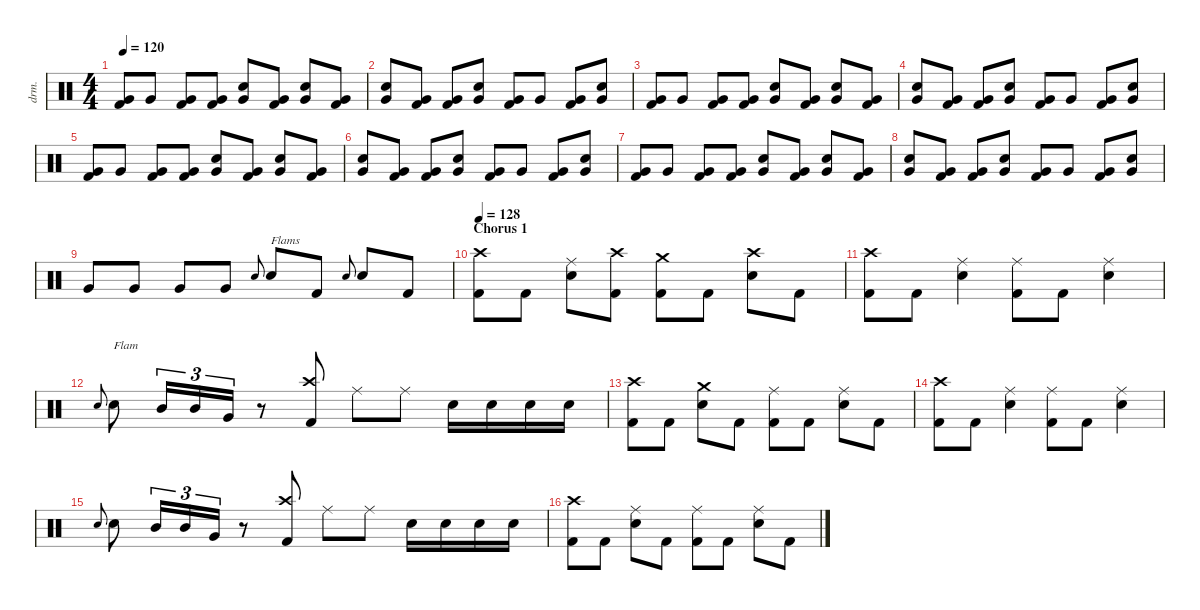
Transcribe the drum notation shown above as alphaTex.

\defaultSystemsLayout 4
\hideDynamics
\bracketExtendMode nobrackets
\otherSystemsTrackNameOrientation horizontal
\track ("Jimmy Chamberlin" "drm.") {instrument percussion}
\staff {score}
\articulation defaults
\ts (4 4)
\tempo 120
\clef neutral
\ks c
("Kick (hit) 2" "Very Low Tom (hit)").8{dy mf beam Up} "Very Low Tom (hit)".8{beam Up} ("Kick (hit) 2" "Very Low Tom (hit)").8{beam Up} ("Very Low Tom (hit)" "Kick (hit) 2").8{beam Up} ("Very Low Tom (hit)" "Snare (hit) 2").8{beam Up} ("Kick (hit) 2" "Very Low Tom (hit)").8{beam Up} ("Very Low Tom (hit)" "Snare (hit) 2").8{beam Up} ("Kick (hit) 2" "Very Low Tom (hit)").8{beam Up} |
("Snare (hit) 2" "Very Low Tom (hit)").8{beam Up} ("Kick (hit) 2" "Very Low Tom (hit)").8{beam Up} ("Kick (hit) 2" "Very Low Tom (hit)").8{beam Up} ("Snare (hit) 2" "Very Low Tom (hit)").8{beam Up} ("Kick (hit) 2" "Very Low Tom (hit)").8{beam Up} "Very Low Tom (hit)".8{beam Up} ("Very Low Tom (hit)" "Kick (hit) 2").8{beam Up} ("Snare (hit) 2" "Very Low Tom (hit)").8{beam Up} |
("Kick (hit) 2" "Very Low Tom (hit)").8{beam Up} "Very Low Tom (hit)".8{beam Up} ("Kick (hit) 2" "Very Low Tom (hit)").8{beam Up} ("Very Low Tom (hit)" "Kick (hit) 2").8{beam Up} ("Very Low Tom (hit)" "Snare (hit) 2").8{beam Up} ("Kick (hit) 2" "Very Low Tom (hit)").8{beam Up} ("Very Low Tom (hit)" "Snare (hit) 2").8{beam Up} ("Kick (hit) 2" "Very Low Tom (hit)").8{beam Up} |
("Snare (hit) 2" "Very Low Tom (hit)").8{beam Up} ("Kick (hit) 2" "Very Low Tom (hit)").8{beam Up} ("Kick (hit) 2" "Very Low Tom (hit)").8{beam Up} ("Snare (hit) 2" "Very Low Tom (hit)").8{beam Up} ("Kick (hit) 2" "Very Low Tom (hit)").8{beam Up} "Very Low Tom (hit)".8{beam Up} ("Very Low Tom (hit)" "Kick (hit) 2").8{beam Up} ("Snare (hit) 2" "Very Low Tom (hit)").8{beam Up} |
("Kick (hit) 2" "Very Low Tom (hit)").8{beam Up} "Very Low Tom (hit)".8{beam Up} ("Kick (hit) 2" "Very Low Tom (hit)").8{beam Up} ("Very Low Tom (hit)" "Kick (hit) 2").8{beam Up} ("Very Low Tom (hit)" "Snare (hit) 2").8{beam Up} ("Kick (hit) 2" "Very Low Tom (hit)").8{beam Up} ("Very Low Tom (hit)" "Snare (hit) 2").8{beam Up} ("Kick (hit) 2" "Very Low Tom (hit)").8{beam Up} |
("Snare (hit) 2" "Very Low Tom (hit)").8{beam Up} ("Kick (hit) 2" "Very Low Tom (hit)").8{beam Up} ("Kick (hit) 2" "Very Low Tom (hit)").8{beam Up} ("Snare (hit) 2" "Very Low Tom (hit)").8{beam Up} ("Kick (hit) 2" "Very Low Tom (hit)").8{beam Up} "Very Low Tom (hit)".8{beam Up} ("Very Low Tom (hit)" "Kick (hit) 2").8{beam Up} ("Snare (hit) 2" "Very Low Tom (hit)").8{beam Up} |
("Kick (hit) 2" "Very Low Tom (hit)").8{beam Up} "Very Low Tom (hit)".8{beam Up} ("Kick (hit) 2" "Very Low Tom (hit)").8{beam Up} ("Very Low Tom (hit)" "Kick (hit) 2").8{beam Up} ("Very Low Tom (hit)" "Snare (hit) 2").8{beam Up} ("Kick (hit) 2" "Very Low Tom (hit)").8{beam Up} ("Very Low Tom (hit)" "Snare (hit) 2").8{beam Up} ("Kick (hit) 2" "Very Low Tom (hit)").8{beam Up} |
("Snare (hit) 2" "Very Low Tom (hit)").8{beam Up} ("Kick (hit) 2" "Very Low Tom (hit)").8{beam Up} ("Kick (hit) 2" "Very Low Tom (hit)").8{beam Up} ("Snare (hit) 2" "Very Low Tom (hit)").8{beam Up} ("Kick (hit) 2" "Very Low Tom (hit)").8{beam Up} "Very Low Tom (hit)".8{beam Up} ("Very Low Tom (hit)" "Kick (hit) 2").8{beam Up} ("Snare (hit) 2" "Very Low Tom (hit)").8{beam Up} |
"Very Low Tom (hit)".8{beam Up} "Very Low Tom (hit)".8{beam Up} "Very Low Tom (hit)".8{beam Up} "Very Low Tom (hit)".8{beam Up} "Snare (hit) 2".8{gr onbeat beam Up} "Snare (hit) 2".8{txt "Flams" beam Up} "Kick (hit) 2".8{beam Up} "Snare (hit) 2".8{gr onbeat beam Up} "Snare (hit) 2".8{beam Up} "Kick (hit) 2".8{beam Up} |
\section ("" "Chorus 1")
\tempo 128
("Crash high (hit)" "Kick (hit) 2").8{beam Down} "Kick (hit) 2".8{beam Down} ("Ride (middle)" "Snare (hit) 2").8{beam Down} ("Crash high (hit)" "Kick (hit) 2").8{beam Down} ("Crash medium (hit)" "Kick (hit) 2").8{beam Down} "Kick (hit) 2".8{beam Down} ("Crash high (hit)" "Snare (hit) 2").8{beam Down} "Kick (hit) 2".8{beam Down} |
("Crash high (hit)" "Kick (hit) 2").8{beam Down} "Kick (hit) 2".8{beam Down} ("Snare (hit) 2" "Ride (middle)").4{beam Down} ("Ride (middle)" "Kick (hit) 2").8{beam Down} "Kick (hit) 2".8{beam Down} ("Ride (middle)" "Snare (hit) 2").4{beam Down} |
"Snare (hit) 2".8{gr onbeat beam Up} "Snare (hit) 2".8{txt "Flam" beam Down} "Mid Tom (hit)".16{tu (3 2) beam Up} "Mid Tom (hit)".16{tu (3 2) beam Up} "Very Low Tom (hit)".16{tu (3 2) beam Up} r.8{beam Up} ("Kick (hit) 2" "Crash high (hit)").8{beam Down} "Ride (middle)".8{beam Down} "Ride (middle)".8{beam Down} "Snare (hit) 2".16{beam Down} "Snare (hit) 2".16{beam Down} "Snare (hit) 2".16{beam Down} "Snare (hit) 2".16{beam Down} |
("Kick (hit) 2" "Crash high (hit)").8{beam Down} "Kick (hit) 2".8{beam Down} ("Crash medium (hit)" "Snare (hit) 2").8{beam Down} "Kick (hit) 2".8{beam Down} ("Ride (middle)" "Kick (hit) 2").8{beam Down} "Kick (hit) 2".8{beam Down} ("Ride (middle)" "Snare (hit) 2").8{beam Down} "Kick (hit) 2".8{beam Down} |
("Kick (hit) 2" "Crash high (hit)").8{beam Down} "Kick (hit) 2".8{beam Down} ("Ride (middle)" "Snare (hit) 2").4{beam Down} ("Kick (hit) 2" "Ride (middle)").8{beam Down} "Kick (hit) 2".8{beam Down} ("Ride (middle)" "Snare (hit) 2").4{beam Down} |
"Snare (hit) 2".8{gr onbeat beam Up} "Snare (hit) 2".8{beam Down} "Mid Tom (hit)".16{tu (3 2) beam Up} "Mid Tom (hit)".16{tu (3 2) beam Up} "Very Low Tom (hit)".16{tu (3 2) beam Up} r.8{beam Up} ("Kick (hit) 2" "Crash high (hit)").8{beam Down} "Ride (middle)".8{beam Down} "Ride (middle)".8{beam Down} "Snare (hit) 2".16{beam Down} "Snare (hit) 2".16{beam Down} "Snare (hit) 2".16{beam Down} "Snare (hit) 2".16{beam Down} |
("Crash high (hit)" "Kick (hit) 2").8{beam Down} "Kick (hit) 2".8{beam Down} ("Ride (middle)" "Snare (hit) 2").8{beam Down} "Kick (hit) 2".8{beam Down} ("Kick (hit) 2" "Ride (middle)").8{beam Down} "Kick (hit) 2".8{beam Down} ("Ride (middle)" "Snare (hit) 2").8{beam Down} "Kick (hit) 2".8{beam Down}
